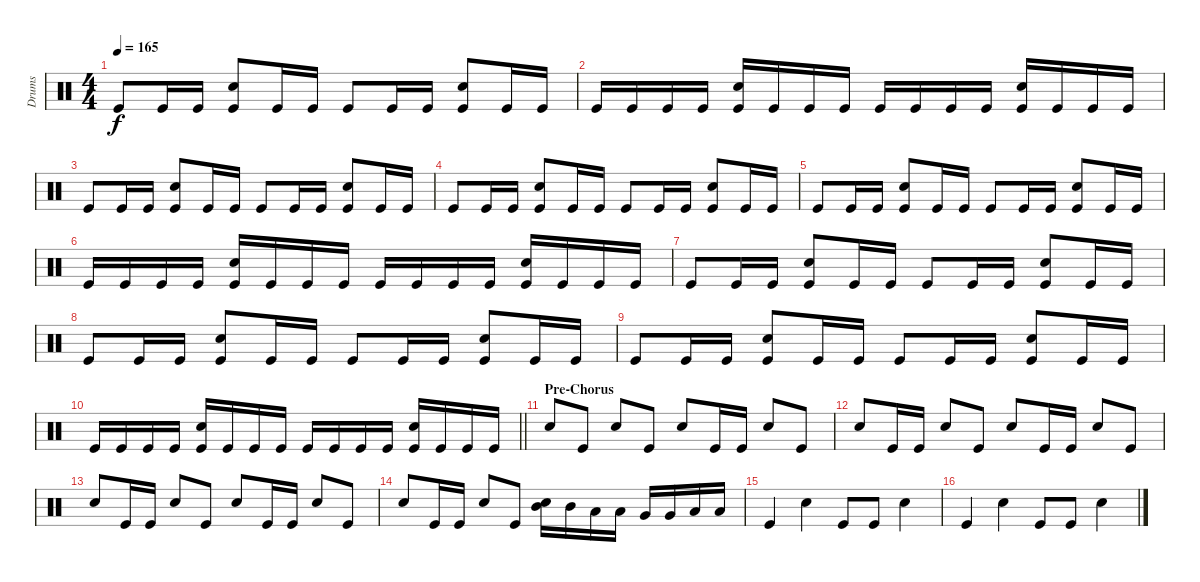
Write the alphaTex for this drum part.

\track ("Drums" "Drums") {instrument percussion}
\staff {score}
\articulation defaults
\ts (4 4)
\tempo 165
\clef neutral
\ks c "Kick (hit)".8{dy f} "Kick (hit)".16 "Kick (hit)".16
("Kick (hit)" "Snare (hit) 2").8 "Kick (hit)".16 "Kick (hit)".16 "Kick (hit)".8 "Kick (hit)".16 "Kick (hit)".16 ("Kick (hit)" "Snare (hit) 2").8 "Kick (hit)".16 "Kick (hit)".16 |
"Kick (hit)".16 "Kick (hit)".16 "Kick (hit)".16 "Kick (hit)".16 ("Kick (hit)" "Snare (hit) 2").16 "Kick (hit)".16 "Kick (hit)".16 "Kick (hit)".16 "Kick (hit)".16 "Kick (hit)".16 "Kick (hit)".16 "Kick (hit)".16 ("Kick (hit)" "Snare (hit) 2").16 "Kick (hit)".16 "Kick (hit)".16 "Kick (hit)".16 |
"Kick (hit)".8 "Kick (hit)".16 "Kick (hit)".16 ("Kick (hit)" "Snare (hit) 2").8 "Kick (hit)".16 "Kick (hit)".16 "Kick (hit)".8 "Kick (hit)".16 "Kick (hit)".16 ("Kick (hit)" "Snare (hit) 2").8 "Kick (hit)".16 "Kick (hit)".16 |
"Kick (hit)".8 "Kick (hit)".16 "Kick (hit)".16 ("Kick (hit)" "Snare (hit) 2").8 "Kick (hit)".16 "Kick (hit)".16 "Kick (hit)".8 "Kick (hit)".16 "Kick (hit)".16 ("Kick (hit)" "Snare (hit) 2").8 "Kick (hit)".16 "Kick (hit)".16 |
"Kick (hit)".8 "Kick (hit)".16 "Kick (hit)".16 ("Kick (hit)" "Snare (hit) 2").8 "Kick (hit)".16 "Kick (hit)".16 "Kick (hit)".8 "Kick (hit)".16 "Kick (hit)".16 ("Kick (hit)" "Snare (hit) 2").8 "Kick (hit)".16 "Kick (hit)".16 |
"Kick (hit)".16 "Kick (hit)".16 "Kick (hit)".16 "Kick (hit)".16 ("Kick (hit)" "Snare (hit) 2").16 "Kick (hit)".16 "Kick (hit)".16 "Kick (hit)".16 "Kick (hit)".16 "Kick (hit)".16 "Kick (hit)".16 "Kick (hit)".16 ("Kick (hit)" "Snare (hit) 2").16 "Kick (hit)".16 "Kick (hit)".16 "Kick (hit)".16 |
"Kick (hit)".8 "Kick (hit)".16 "Kick (hit)".16 ("Kick (hit)" "Snare (hit) 2").8 "Kick (hit)".16 "Kick (hit)".16 "Kick (hit)".8 "Kick (hit)".16 "Kick (hit)".16 ("Kick (hit)" "Snare (hit) 2").8 "Kick (hit)".16 "Kick (hit)".16 |
"Kick (hit)".8 "Kick (hit)".16 "Kick (hit)".16 ("Kick (hit)" "Snare (hit) 2").8 "Kick (hit)".16 "Kick (hit)".16 "Kick (hit)".8 "Kick (hit)".16 "Kick (hit)".16 ("Kick (hit)" "Snare (hit) 2").8 "Kick (hit)".16 "Kick (hit)".16 |
"Kick (hit)".8 "Kick (hit)".16 "Kick (hit)".16 ("Kick (hit)" "Snare (hit) 2").8 "Kick (hit)".16 "Kick (hit)".16 "Kick (hit)".8 "Kick (hit)".16 "Kick (hit)".16 ("Kick (hit)" "Snare (hit) 2").8 "Kick (hit)".16 "Kick (hit)".16 |
\barLineRight lightlight "Kick (hit)".16 "Kick (hit)".16 "Kick (hit)".16 "Kick (hit)".16
("Kick (hit)" "Snare (hit) 2").16 "Kick (hit)".16 "Kick (hit)".16 "Kick (hit)".16 "Kick (hit)".16 "Kick (hit)".16 "Kick (hit)".16 "Kick (hit)".16 ("Kick (hit)" "Snare (hit) 2").16 "Kick (hit)".16 "Kick (hit)".16 "Kick (hit)".16 |
\section ("" "Pre-Chorus")
"Snare (hit) 2".8 "Kick (hit)".8 "Snare (hit) 2".8 "Kick (hit)".8 "Snare (hit) 2".8 "Kick (hit)".16 "Kick (hit)".16 "Snare (hit) 2".8 "Kick (hit)".8 |
"Snare (hit) 2".8 "Kick (hit)".16 "Kick (hit)".16 "Snare (hit) 2".8 "Kick (hit)".8 "Snare (hit) 2".8 "Kick (hit)".16 "Kick (hit)".16 "Snare (hit) 2".8 "Kick (hit)".8 |
"Snare (hit) 2".8 "Kick (hit)".16 "Kick (hit)".16 "Snare (hit) 2".8 "Kick (hit)".8 "Snare (hit) 2".8 "Kick (hit)".16 "Kick (hit)".16 "Snare (hit) 2".8 "Kick (hit)".8 |
"Snare (hit) 2".8 "Kick (hit)".16 "Kick (hit)".16 "Snare (hit) 2".8 "Kick (hit)".8 ("Snare (hit) 2" "Mid Tom (hit)").16 "Mid Tom (hit)".16 "Low Tom (hit)".16 "Low Tom (hit)".16 "Very Low Tom (hit)".16 "Very Low Tom (hit)".16 "Low Floor Tom (hit)".16 "Low Floor Tom (hit)".16 |
"Kick (hit)".4 "Snare (hit) 2".4 "Kick (hit)".8 "Kick (hit)".8 "Snare (hit) 2".4 |
"Kick (hit)".4 "Snare (hit) 2".4 "Kick (hit)".8 "Kick (hit)".8 "Snare (hit) 2".4
